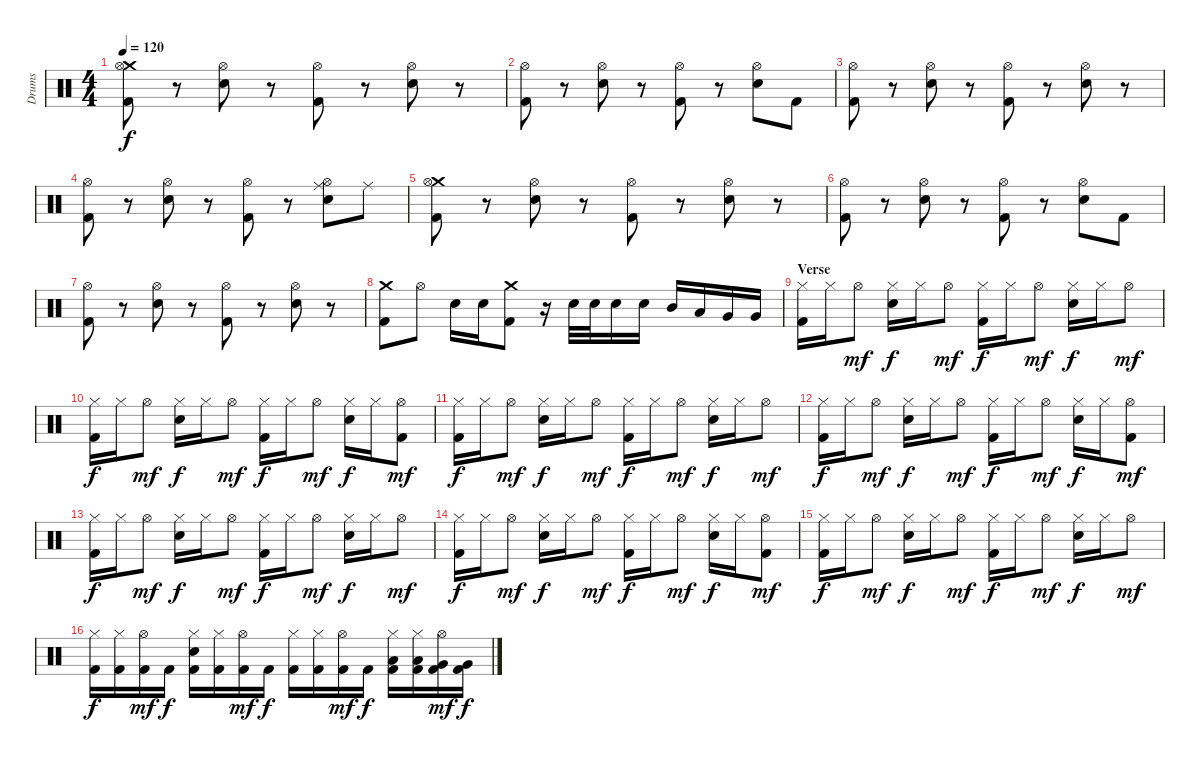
\track ("Drums" "Drums") {instrument percussion}
\staff {score}
\articulation defaults
\ts (4 4)
\tempo 120
\clef neutral
\ks c
("Crash medium (hit)" "Hi-Hat (open)" "Kick (hit) 2").8{dy f} r.8 ("Hi-Hat (open)" "Electric Snare (hit)").8 r.8 ("Hi-Hat (open)" "Kick (hit) 2").8 r.8 ("Hi-Hat (open)" "Electric Snare (hit)").8 r.8 |
("Hi-Hat (open)" "Kick (hit) 2").8 r.8 ("Hi-Hat (open)" "Electric Snare (hit)").8 r.8 ("Hi-Hat (open)" "Kick (hit) 2").8 r.8 ("Hi-Hat (open)" "Electric Snare (hit)").8 "Kick (hit) 2".8 |
("Hi-Hat (open)" "Kick (hit) 2").8 r.8 ("Hi-Hat (open)" "Electric Snare (hit)").8 r.8 ("Hi-Hat (open)" "Kick (hit) 2").8 r.8 ("Hi-Hat (open)" "Electric Snare (hit)").8 r.8 |
("Hi-Hat (open)" "Kick (hit) 2").8 r.8 ("Hi-Hat (open)" "Electric Snare (hit)").8 r.8 ("Hi-Hat (open)" "Kick (hit) 2").8 r.8 ("Ride (middle)" "Hi-Hat (open)" "Electric Snare (hit)").8 "Ride (middle)".8 |
("Crash medium (hit)" "Hi-Hat (open)" "Kick (hit) 2").8 r.8 ("Hi-Hat (open)" "Electric Snare (hit)").8 r.8 ("Hi-Hat (open)" "Kick (hit) 2").8 r.8 ("Hi-Hat (open)" "Electric Snare (hit)").8 r.8 |
("Hi-Hat (open)" "Kick (hit) 2").8 r.8 ("Hi-Hat (open)" "Electric Snare (hit)").8 r.8 ("Hi-Hat (open)" "Kick (hit) 2").8 r.8 ("Hi-Hat (open)" "Electric Snare (hit)").8 "Kick (hit) 2".8 |
("Hi-Hat (open)" "Kick (hit) 2").8 r.8 ("Hi-Hat (open)" "Electric Snare (hit)").8 r.8 ("Hi-Hat (open)" "Kick (hit) 2").8 r.8 ("Hi-Hat (open)" "Electric Snare (hit)").8 r.8 |
("Crash medium (hit)" "Kick (hit) 2").8 "Hi-Hat (open)".8 "Electric Snare (hit)".16 "Electric Snare (hit)".16 ("Crash medium (hit)" "Kick (hit) 2").8 r.16 "Electric Snare (hit)".32 "Electric Snare (hit)".32 "Electric Snare (hit)".16 "Electric Snare (hit)".16 "Mid Tom (hit)".16 "Low Tom (hit)".16 "Very Low Tom (hit)".16 "Very Low Tom (hit)".16 |
\section ("" "Verse")
("Hi-Hat (closed)" "Kick (hit) 2").16 "Hi-Hat (closed)".16 "Hi-Hat (open)".8{dy mf} ("Hi-Hat (closed)" "Electric Snare (hit)").16{dy f} "Hi-Hat (closed)".16 "Hi-Hat (open)".8{dy mf} ("Hi-Hat (closed)" "Kick (hit) 2").16{dy f} "Hi-Hat (closed)".16 "Hi-Hat (open)".8{dy mf} ("Hi-Hat (closed)" "Electric Snare (hit)").16{dy f} "Hi-Hat (closed)".16 "Hi-Hat (open)".8{dy mf} |
("Hi-Hat (closed)" "Kick (hit) 2").16{dy f} "Hi-Hat (closed)".16 "Hi-Hat (open)".8{dy mf} ("Hi-Hat (closed)" "Electric Snare (hit)").16{dy f} "Hi-Hat (closed)".16 "Hi-Hat (open)".8{dy mf} ("Hi-Hat (closed)" "Kick (hit) 2").16{dy f} "Hi-Hat (closed)".16 "Hi-Hat (open)".8{dy mf} ("Hi-Hat (closed)" "Electric Snare (hit)").16{dy f} "Hi-Hat (closed)".16 ("Hi-Hat (open)" "Kick (hit) 2").8{dy mf} |
("Hi-Hat (closed)" "Kick (hit) 2").16{dy f} "Hi-Hat (closed)".16 "Hi-Hat (open)".8{dy mf} ("Hi-Hat (closed)" "Electric Snare (hit)").16{dy f} "Hi-Hat (closed)".16 "Hi-Hat (open)".8{dy mf} ("Hi-Hat (closed)" "Kick (hit) 2").16{dy f} "Hi-Hat (closed)".16 "Hi-Hat (open)".8{dy mf} ("Hi-Hat (closed)" "Electric Snare (hit)").16{dy f} "Hi-Hat (closed)".16 "Hi-Hat (open)".8{dy mf} |
("Hi-Hat (closed)" "Kick (hit) 2").16{dy f} "Hi-Hat (closed)".16 "Hi-Hat (open)".8{dy mf} ("Hi-Hat (closed)" "Electric Snare (hit)").16{dy f} "Hi-Hat (closed)".16 "Hi-Hat (open)".8{dy mf} ("Hi-Hat (closed)" "Kick (hit) 2").16{dy f} "Hi-Hat (closed)".16 "Hi-Hat (open)".8{dy mf} ("Hi-Hat (closed)" "Electric Snare (hit)").16{dy f} "Hi-Hat (closed)".16 ("Hi-Hat (open)" "Kick (hit) 2").8{dy mf} |
("Hi-Hat (closed)" "Kick (hit) 2").16{dy f} "Hi-Hat (closed)".16 "Hi-Hat (open)".8{dy mf} ("Hi-Hat (closed)" "Electric Snare (hit)").16{dy f} "Hi-Hat (closed)".16 "Hi-Hat (open)".8{dy mf} ("Hi-Hat (closed)" "Kick (hit) 2").16{dy f} "Hi-Hat (closed)".16 "Hi-Hat (open)".8{dy mf} ("Hi-Hat (closed)" "Electric Snare (hit)").16{dy f} "Hi-Hat (closed)".16 "Hi-Hat (open)".8{dy mf} |
("Hi-Hat (closed)" "Kick (hit) 2").16{dy f} "Hi-Hat (closed)".16 "Hi-Hat (open)".8{dy mf} ("Hi-Hat (closed)" "Electric Snare (hit)").16{dy f} "Hi-Hat (closed)".16 "Hi-Hat (open)".8{dy mf} ("Hi-Hat (closed)" "Kick (hit) 2").16{dy f} "Hi-Hat (closed)".16 "Hi-Hat (open)".8{dy mf} ("Hi-Hat (closed)" "Electric Snare (hit)").16{dy f} "Hi-Hat (closed)".16 ("Hi-Hat (open)" "Kick (hit) 2").8{dy mf} |
("Hi-Hat (closed)" "Kick (hit) 2").16{dy f} "Hi-Hat (closed)".16 "Hi-Hat (open)".8{dy mf} ("Hi-Hat (closed)" "Electric Snare (hit)").16{dy f} "Hi-Hat (closed)".16 "Hi-Hat (open)".8{dy mf} ("Hi-Hat (closed)" "Kick (hit) 2").16{dy f} "Hi-Hat (closed)".16 "Hi-Hat (open)".8{dy mf} ("Hi-Hat (closed)" "Electric Snare (hit)").16{dy f} "Hi-Hat (closed)".16 "Hi-Hat (open)".8{dy mf} |
("Hi-Hat (closed)" "Kick (hit) 2").16{dy f} ("Hi-Hat (closed)" "Kick (hit) 2").16 ("Hi-Hat (open)" "Kick (hit) 2").16{dy mf} "Kick (hit) 2".16{dy f} ("Hi-Hat (closed)" "Electric Snare (hit)" "Kick (hit) 2").16 ("Hi-Hat (closed)" "Kick (hit) 2").16 ("Hi-Hat (open)" "Kick (hit) 2").16{dy mf} "Kick (hit) 2".16{dy f} ("Hi-Hat (closed)" "Kick (hit) 2").16 ("Hi-Hat (closed)" "Kick (hit) 2").16 ("Hi-Hat (open)" "Kick (hit) 2").16{dy mf} "Kick (hit) 2".16{dy f} ("Hi-Hat (closed)" "Low Tom (hit)" "Kick (hit) 2").16 ("Hi-Hat (closed)" "Low Tom (hit)" "Kick (hit) 2").16 ("Hi-Hat (open)" "Very Low Tom (hit)" "Kick (hit) 2").16{dy mf} ("Very Low Tom (hit)" "Kick (hit) 2").16{dy f}
